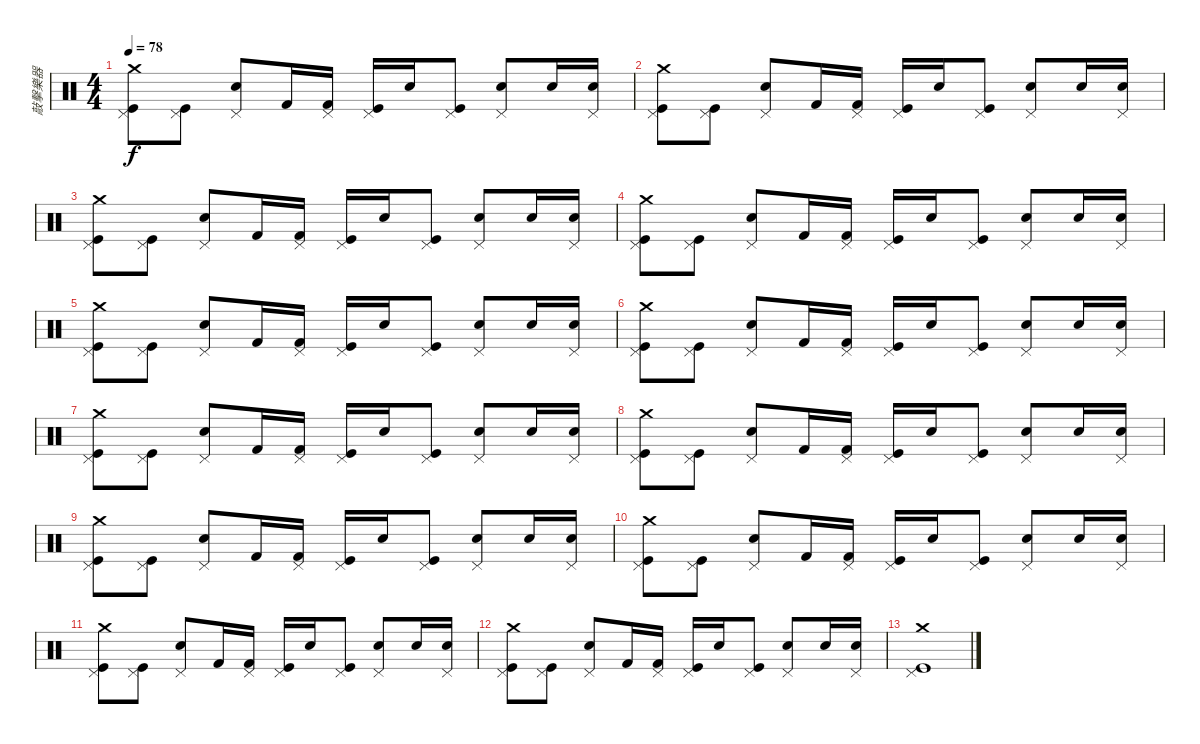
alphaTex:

\track ("敲擊樂器" "敲擊樂器") {instrument percussion}
\staff {score}
\articulation defaults
\ts (4 4)
\tempo 78
\clef neutral
\ks c
("Pedal Hi-Hat (hit)" "Kick (hit)" "Crash medium (hit)").8{dy f} ("Pedal Hi-Hat (hit)" "Kick (hit)").8 ("Pedal Hi-Hat (hit)" "Electric Snare (hit)").8 "Kick (hit) 2".16 ("Pedal Hi-Hat (hit)" "Kick (hit) 2").16 ("Pedal Hi-Hat (hit)" "Kick (hit)").16 "Electric Snare (hit)".16 ("Pedal Hi-Hat (hit)" "Kick (hit)").8 ("Pedal Hi-Hat (hit)" "Electric Snare (hit)").8 "Electric Snare (hit)".16 ("Pedal Hi-Hat (hit)" "Electric Snare (hit)").16 |
("Pedal Hi-Hat (hit)" "Kick (hit)" "Crash medium (hit)").8 ("Pedal Hi-Hat (hit)" "Kick (hit)").8 ("Pedal Hi-Hat (hit)" "Electric Snare (hit)").8 "Kick (hit) 2".16 ("Pedal Hi-Hat (hit)" "Kick (hit) 2").16 ("Pedal Hi-Hat (hit)" "Kick (hit)").16 "Electric Snare (hit)".16 ("Pedal Hi-Hat (hit)" "Kick (hit)").8 ("Pedal Hi-Hat (hit)" "Electric Snare (hit)").8 "Electric Snare (hit)".16 ("Pedal Hi-Hat (hit)" "Electric Snare (hit)").16 |
("Pedal Hi-Hat (hit)" "Kick (hit)" "Crash medium (hit)").8 ("Pedal Hi-Hat (hit)" "Kick (hit)").8 ("Pedal Hi-Hat (hit)" "Electric Snare (hit)").8 "Kick (hit) 2".16 ("Pedal Hi-Hat (hit)" "Kick (hit) 2").16 ("Pedal Hi-Hat (hit)" "Kick (hit)").16 "Electric Snare (hit)".16 ("Pedal Hi-Hat (hit)" "Kick (hit)").8 ("Pedal Hi-Hat (hit)" "Electric Snare (hit)").8 "Electric Snare (hit)".16 ("Pedal Hi-Hat (hit)" "Electric Snare (hit)").16 |
("Pedal Hi-Hat (hit)" "Kick (hit)" "Crash medium (hit)").8 ("Pedal Hi-Hat (hit)" "Kick (hit)").8 ("Pedal Hi-Hat (hit)" "Electric Snare (hit)").8 "Kick (hit) 2".16 ("Pedal Hi-Hat (hit)" "Kick (hit) 2").16 ("Pedal Hi-Hat (hit)" "Kick (hit)").16 "Electric Snare (hit)".16 ("Pedal Hi-Hat (hit)" "Kick (hit)").8 ("Pedal Hi-Hat (hit)" "Electric Snare (hit)").8 "Electric Snare (hit)".16 ("Pedal Hi-Hat (hit)" "Electric Snare (hit)").16 |
("Pedal Hi-Hat (hit)" "Kick (hit)" "Crash medium (hit)").8 ("Pedal Hi-Hat (hit)" "Kick (hit)").8 ("Pedal Hi-Hat (hit)" "Electric Snare (hit)").8 "Kick (hit) 2".16 ("Pedal Hi-Hat (hit)" "Kick (hit) 2").16 ("Pedal Hi-Hat (hit)" "Kick (hit)").16 "Electric Snare (hit)".16 ("Pedal Hi-Hat (hit)" "Kick (hit)").8 ("Pedal Hi-Hat (hit)" "Electric Snare (hit)").8 "Electric Snare (hit)".16 ("Pedal Hi-Hat (hit)" "Electric Snare (hit)").16 |
("Pedal Hi-Hat (hit)" "Kick (hit)" "Crash medium (hit)").8 ("Pedal Hi-Hat (hit)" "Kick (hit)").8 ("Pedal Hi-Hat (hit)" "Electric Snare (hit)").8 "Kick (hit) 2".16 ("Pedal Hi-Hat (hit)" "Kick (hit) 2").16 ("Pedal Hi-Hat (hit)" "Kick (hit)").16 "Electric Snare (hit)".16 ("Pedal Hi-Hat (hit)" "Kick (hit)").8 ("Pedal Hi-Hat (hit)" "Electric Snare (hit)").8 "Electric Snare (hit)".16 ("Pedal Hi-Hat (hit)" "Electric Snare (hit)").16 |
("Pedal Hi-Hat (hit)" "Kick (hit)" "Crash medium (hit)").8 ("Pedal Hi-Hat (hit)" "Kick (hit)").8 ("Pedal Hi-Hat (hit)" "Electric Snare (hit)").8 "Kick (hit) 2".16 ("Pedal Hi-Hat (hit)" "Kick (hit) 2").16 ("Pedal Hi-Hat (hit)" "Kick (hit)").16 "Electric Snare (hit)".16 ("Pedal Hi-Hat (hit)" "Kick (hit)").8 ("Pedal Hi-Hat (hit)" "Electric Snare (hit)").8 "Electric Snare (hit)".16 ("Pedal Hi-Hat (hit)" "Electric Snare (hit)").16 |
("Pedal Hi-Hat (hit)" "Kick (hit)" "Crash medium (hit)").8 ("Pedal Hi-Hat (hit)" "Kick (hit)").8 ("Pedal Hi-Hat (hit)" "Electric Snare (hit)").8 "Kick (hit) 2".16 ("Pedal Hi-Hat (hit)" "Kick (hit) 2").16 ("Pedal Hi-Hat (hit)" "Kick (hit)").16 "Electric Snare (hit)".16 ("Pedal Hi-Hat (hit)" "Kick (hit)").8 ("Pedal Hi-Hat (hit)" "Electric Snare (hit)").8 "Electric Snare (hit)".16 ("Pedal Hi-Hat (hit)" "Electric Snare (hit)").16 |
("Pedal Hi-Hat (hit)" "Kick (hit)" "Crash medium (hit)").8 ("Pedal Hi-Hat (hit)" "Kick (hit)").8 ("Pedal Hi-Hat (hit)" "Electric Snare (hit)").8 "Kick (hit) 2".16 ("Pedal Hi-Hat (hit)" "Kick (hit) 2").16 ("Pedal Hi-Hat (hit)" "Kick (hit)").16 "Electric Snare (hit)".16 ("Pedal Hi-Hat (hit)" "Kick (hit)").8 ("Pedal Hi-Hat (hit)" "Electric Snare (hit)").8 "Electric Snare (hit)".16 ("Pedal Hi-Hat (hit)" "Electric Snare (hit)").16 |
("Pedal Hi-Hat (hit)" "Kick (hit)" "Crash medium (hit)").8 ("Pedal Hi-Hat (hit)" "Kick (hit)").8 ("Pedal Hi-Hat (hit)" "Electric Snare (hit)").8 "Kick (hit) 2".16 ("Pedal Hi-Hat (hit)" "Kick (hit) 2").16 ("Pedal Hi-Hat (hit)" "Kick (hit)").16 "Electric Snare (hit)".16 ("Pedal Hi-Hat (hit)" "Kick (hit)").8 ("Pedal Hi-Hat (hit)" "Electric Snare (hit)").8 "Electric Snare (hit)".16 ("Pedal Hi-Hat (hit)" "Electric Snare (hit)").16 |
("Pedal Hi-Hat (hit)" "Kick (hit)" "Crash medium (hit)").8 ("Pedal Hi-Hat (hit)" "Kick (hit)").8 ("Pedal Hi-Hat (hit)" "Electric Snare (hit)").8 "Kick (hit) 2".16 ("Pedal Hi-Hat (hit)" "Kick (hit) 2").16 ("Pedal Hi-Hat (hit)" "Kick (hit)").16 "Electric Snare (hit)".16 ("Pedal Hi-Hat (hit)" "Kick (hit)").8 ("Pedal Hi-Hat (hit)" "Electric Snare (hit)").8 "Electric Snare (hit)".16 ("Pedal Hi-Hat (hit)" "Electric Snare (hit)").16 |
("Pedal Hi-Hat (hit)" "Kick (hit)" "Crash medium (hit)").8 ("Pedal Hi-Hat (hit)" "Kick (hit)").8 ("Pedal Hi-Hat (hit)" "Electric Snare (hit)").8 "Kick (hit) 2".16 ("Pedal Hi-Hat (hit)" "Kick (hit) 2").16 ("Pedal Hi-Hat (hit)" "Kick (hit)").16 "Electric Snare (hit)".16 ("Pedal Hi-Hat (hit)" "Kick (hit)").8 ("Pedal Hi-Hat (hit)" "Electric Snare (hit)").8 "Electric Snare (hit)".16 ("Pedal Hi-Hat (hit)" "Electric Snare (hit)").16 |
("Pedal Hi-Hat (hit)" "Kick (hit)" "Crash medium (hit)").1
